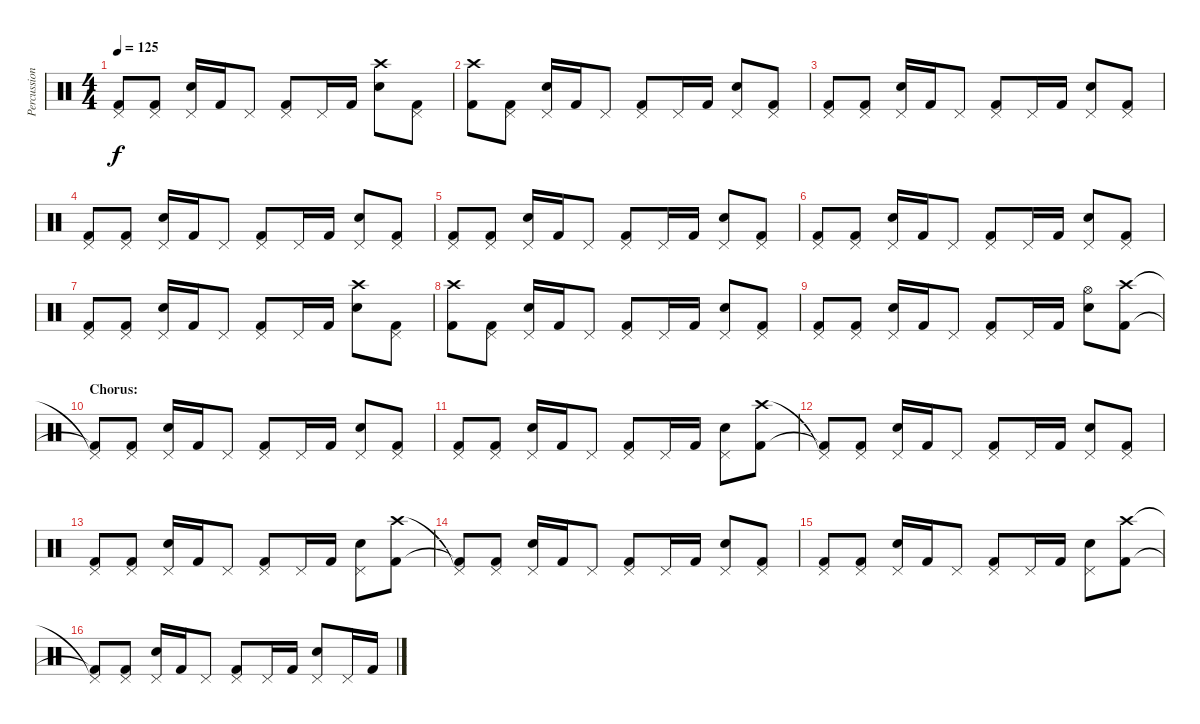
\track ("Percussion" "Percussion") {instrument percussion}
\staff {score}
\articulation defaults
\ts (4 4)
\tempo 125
\clef neutral
\ks c
("Pedal Hi-Hat (hit)" "Kick (hit) 2").8{dy f} ("Pedal Hi-Hat (hit)" "Kick (hit) 2").8 ("Pedal Hi-Hat (hit)" "Electric Snare (hit)").16 "Kick (hit) 2".16 "Pedal Hi-Hat (hit)".8 ("Pedal Hi-Hat (hit)" "Kick (hit) 2").8 "Pedal Hi-Hat (hit)".16 "Kick (hit) 2".16 ("Crash high (hit)" "Electric Snare (hit)").8 ("Pedal Hi-Hat (hit)" "Kick (hit) 2").8 |
("Crash high (hit)" "Kick (hit) 2").8 ("Pedal Hi-Hat (hit)" "Kick (hit) 2").8 ("Pedal Hi-Hat (hit)" "Electric Snare (hit)").16 "Kick (hit) 2".16 "Pedal Hi-Hat (hit)".8 ("Pedal Hi-Hat (hit)" "Kick (hit) 2").8 "Pedal Hi-Hat (hit)".16 "Kick (hit) 2".16 ("Pedal Hi-Hat (hit)" "Electric Snare (hit)").8 ("Pedal Hi-Hat (hit)" "Kick (hit) 2").8 |
("Pedal Hi-Hat (hit)" "Kick (hit) 2").8 ("Pedal Hi-Hat (hit)" "Kick (hit) 2").8 ("Pedal Hi-Hat (hit)" "Electric Snare (hit)").16 "Kick (hit) 2".16 "Pedal Hi-Hat (hit)".8 ("Pedal Hi-Hat (hit)" "Kick (hit) 2").8 "Pedal Hi-Hat (hit)".16 "Kick (hit) 2".16 ("Pedal Hi-Hat (hit)" "Electric Snare (hit)").8 ("Pedal Hi-Hat (hit)" "Kick (hit) 2").8 |
("Pedal Hi-Hat (hit)" "Kick (hit) 2").8 ("Pedal Hi-Hat (hit)" "Kick (hit) 2").8 ("Pedal Hi-Hat (hit)" "Electric Snare (hit)").16 "Kick (hit) 2".16 "Pedal Hi-Hat (hit)".8 ("Pedal Hi-Hat (hit)" "Kick (hit) 2").8 "Pedal Hi-Hat (hit)".16 "Kick (hit) 2".16 ("Pedal Hi-Hat (hit)" "Electric Snare (hit)").8 ("Pedal Hi-Hat (hit)" "Kick (hit) 2").8 |
("Pedal Hi-Hat (hit)" "Kick (hit) 2").8 ("Pedal Hi-Hat (hit)" "Kick (hit) 2").8 ("Pedal Hi-Hat (hit)" "Electric Snare (hit)").16 "Kick (hit) 2".16 "Pedal Hi-Hat (hit)".8 ("Pedal Hi-Hat (hit)" "Kick (hit) 2").8 "Pedal Hi-Hat (hit)".16 "Kick (hit) 2".16 ("Pedal Hi-Hat (hit)" "Electric Snare (hit)").8 ("Pedal Hi-Hat (hit)" "Kick (hit) 2").8 |
("Pedal Hi-Hat (hit)" "Kick (hit) 2").8 ("Pedal Hi-Hat (hit)" "Kick (hit) 2").8 ("Pedal Hi-Hat (hit)" "Electric Snare (hit)").16 "Kick (hit) 2".16 "Pedal Hi-Hat (hit)".8 ("Pedal Hi-Hat (hit)" "Kick (hit) 2").8 "Pedal Hi-Hat (hit)".16 "Kick (hit) 2".16 ("Pedal Hi-Hat (hit)" "Electric Snare (hit)").8 ("Pedal Hi-Hat (hit)" "Kick (hit) 2").8 |
("Pedal Hi-Hat (hit)" "Kick (hit) 2").8 ("Pedal Hi-Hat (hit)" "Kick (hit) 2").8 ("Pedal Hi-Hat (hit)" "Electric Snare (hit)").16 "Kick (hit) 2".16 "Pedal Hi-Hat (hit)".8 ("Pedal Hi-Hat (hit)" "Kick (hit) 2").8 "Pedal Hi-Hat (hit)".16 "Kick (hit) 2".16 ("Crash high (hit)" "Electric Snare (hit)").8 ("Pedal Hi-Hat (hit)" "Kick (hit) 2").8 |
("Crash high (hit)" "Kick (hit) 2").8 ("Pedal Hi-Hat (hit)" "Kick (hit) 2").8 ("Pedal Hi-Hat (hit)" "Electric Snare (hit)").16 "Kick (hit) 2".16 "Pedal Hi-Hat (hit)".8 ("Pedal Hi-Hat (hit)" "Kick (hit) 2").8 "Pedal Hi-Hat (hit)".16 "Kick (hit) 2".16 ("Pedal Hi-Hat (hit)" "Electric Snare (hit)").8 ("Pedal Hi-Hat (hit)" "Kick (hit) 2").8 |
("Pedal Hi-Hat (hit)" "Kick (hit) 2").8 ("Pedal Hi-Hat (hit)" "Kick (hit) 2").8 ("Pedal Hi-Hat (hit)" "Electric Snare (hit)").16 "Kick (hit) 2".16 "Pedal Hi-Hat (hit)".8 ("Pedal Hi-Hat (hit)" "Kick (hit) 2").8 "Pedal Hi-Hat (hit)".16 "Kick (hit) 2".16 ("Hi-Hat (open)" "Electric Snare (hit)").8 ("Crash high (hit)" "Kick (hit) 2").8 |
\section ("" "Chorus:")
("Pedal Hi-Hat (hit)"{t} "Kick (hit) 2"{t}).8 ("Pedal Hi-Hat (hit)" "Kick (hit) 2").8 ("Pedal Hi-Hat (hit)" "Electric Snare (hit)").16 "Kick (hit) 2".16 "Pedal Hi-Hat (hit)".8 ("Pedal Hi-Hat (hit)" "Kick (hit) 2").8 "Pedal Hi-Hat (hit)".16 "Kick (hit) 2".16 ("Pedal Hi-Hat (hit)" "Electric Snare (hit)").8 ("Pedal Hi-Hat (hit)" "Kick (hit) 2").8 |
("Pedal Hi-Hat (hit)" "Kick (hit) 2").8 ("Pedal Hi-Hat (hit)" "Kick (hit) 2").8 ("Pedal Hi-Hat (hit)" "Electric Snare (hit)").16 "Kick (hit) 2".16 "Pedal Hi-Hat (hit)".8 ("Pedal Hi-Hat (hit)" "Kick (hit) 2").8 "Pedal Hi-Hat (hit)".16 "Kick (hit) 2".16 ("Pedal Hi-Hat (hit)" "Electric Snare (hit)").8 ("Crash high (hit)" "Kick (hit) 2").8 |
("Pedal Hi-Hat (hit)"{t} "Kick (hit) 2"{t}).8 ("Pedal Hi-Hat (hit)" "Kick (hit) 2").8 ("Pedal Hi-Hat (hit)" "Electric Snare (hit)").16 "Kick (hit) 2".16 "Pedal Hi-Hat (hit)".8 ("Pedal Hi-Hat (hit)" "Kick (hit) 2").8 "Pedal Hi-Hat (hit)".16 "Kick (hit) 2".16 ("Pedal Hi-Hat (hit)" "Electric Snare (hit)").8 ("Pedal Hi-Hat (hit)" "Kick (hit) 2").8 |
("Pedal Hi-Hat (hit)" "Kick (hit) 2").8 ("Pedal Hi-Hat (hit)" "Kick (hit) 2").8 ("Pedal Hi-Hat (hit)" "Electric Snare (hit)").16 "Kick (hit) 2".16 "Pedal Hi-Hat (hit)".8 ("Pedal Hi-Hat (hit)" "Kick (hit) 2").8 "Pedal Hi-Hat (hit)".16 "Kick (hit) 2".16 ("Pedal Hi-Hat (hit)" "Electric Snare (hit)").8 ("Crash high (hit)" "Kick (hit) 2").8 |
("Pedal Hi-Hat (hit)"{t} "Kick (hit) 2"{t}).8 ("Pedal Hi-Hat (hit)" "Kick (hit) 2").8 ("Pedal Hi-Hat (hit)" "Electric Snare (hit)").16 "Kick (hit) 2".16 "Pedal Hi-Hat (hit)".8 ("Pedal Hi-Hat (hit)" "Kick (hit) 2").8 "Pedal Hi-Hat (hit)".16 "Kick (hit) 2".16 ("Pedal Hi-Hat (hit)" "Electric Snare (hit)").8 ("Pedal Hi-Hat (hit)" "Kick (hit) 2").8 |
("Pedal Hi-Hat (hit)" "Kick (hit) 2").8 ("Pedal Hi-Hat (hit)" "Kick (hit) 2").8 ("Pedal Hi-Hat (hit)" "Electric Snare (hit)").16 "Kick (hit) 2".16 "Pedal Hi-Hat (hit)".8 ("Pedal Hi-Hat (hit)" "Kick (hit) 2").8 "Pedal Hi-Hat (hit)".16 "Kick (hit) 2".16 ("Pedal Hi-Hat (hit)" "Electric Snare (hit)").8 ("Crash high (hit)" "Kick (hit) 2").8 |
("Pedal Hi-Hat (hit)"{t} "Kick (hit) 2"{t}).8 ("Pedal Hi-Hat (hit)" "Kick (hit) 2").8 ("Pedal Hi-Hat (hit)" "Electric Snare (hit)").16 "Kick (hit) 2".16 "Pedal Hi-Hat (hit)".8 ("Pedal Hi-Hat (hit)" "Kick (hit) 2").8 "Pedal Hi-Hat (hit)".16 "Kick (hit) 2".16 ("Pedal Hi-Hat (hit)" "Electric Snare (hit)").8 "Pedal Hi-Hat (hit)".16 "Kick (hit) 2".16
